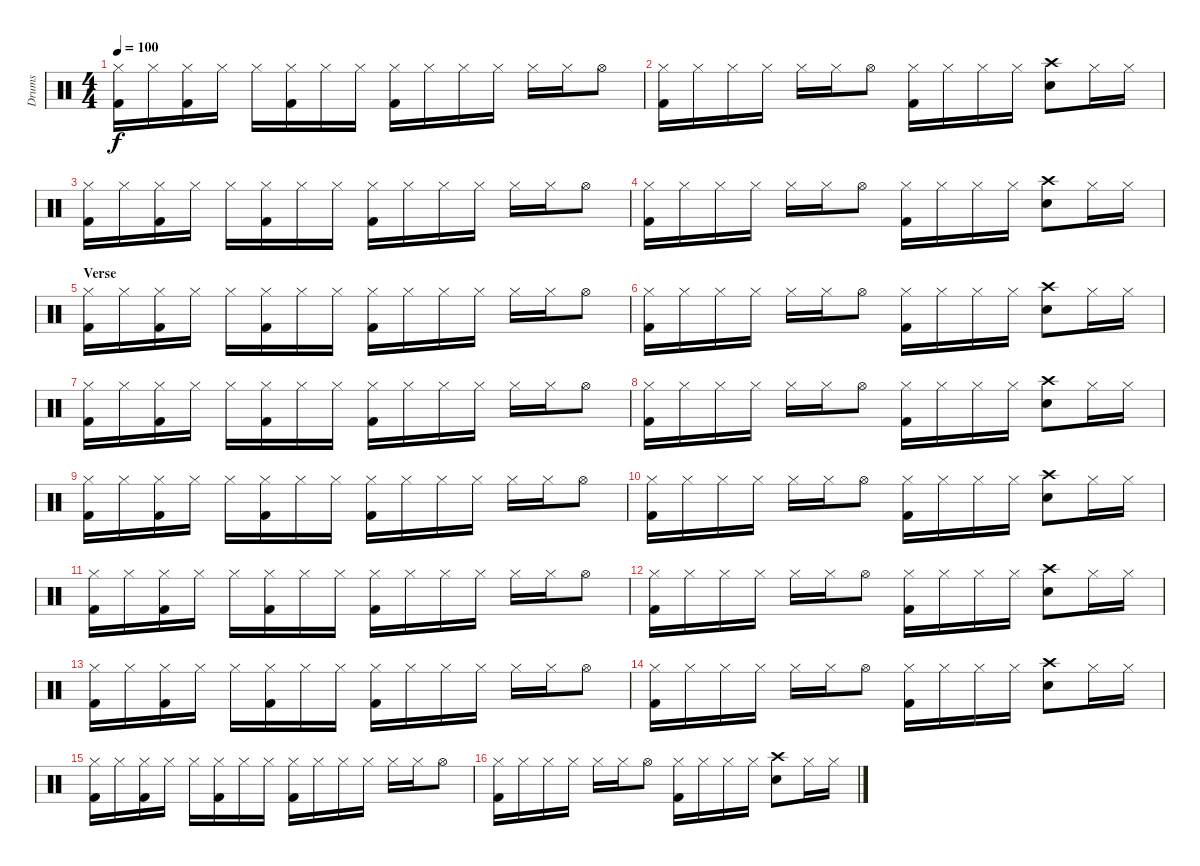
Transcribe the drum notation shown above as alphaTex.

\track ("Drums" "Drums") {instrument percussion}
\staff {score}
\articulation defaults
\ts (4 4)
\tempo 100
\clef neutral
\ks c
("Hi-Hat (closed)" "Kick (hit) 2").16{dy f} "Hi-Hat (closed)".16 ("Hi-Hat (closed)" "Kick (hit) 2").16 "Hi-Hat (closed)".16 "Hi-Hat (closed)".16 ("Hi-Hat (closed)" "Kick (hit) 2").16 "Hi-Hat (closed)".16 "Hi-Hat (closed)".16 ("Hi-Hat (closed)" "Kick (hit) 2").16 "Hi-Hat (closed)".16 "Hi-Hat (closed)".16 "Hi-Hat (closed)".16 "Hi-Hat (closed)".16 "Hi-Hat (closed)".16 "Hi-Hat (open)".8 |
("Hi-Hat (closed)" "Kick (hit) 2").16 "Hi-Hat (closed)".16 "Hi-Hat (closed)".16 "Hi-Hat (closed)".16 "Hi-Hat (closed)".16 "Hi-Hat (closed)".16 "Hi-Hat (open)".8 ("Hi-Hat (closed)" "Kick (hit) 2").16 "Hi-Hat (closed)".16 "Hi-Hat (closed)".16 "Hi-Hat (closed)".16 ("Crash high (hit)" "Electric Snare (hit)").8 "Hi-Hat (closed)".16 "Hi-Hat (closed)".16 |
("Hi-Hat (closed)" "Kick (hit) 2").16 "Hi-Hat (closed)".16 ("Hi-Hat (closed)" "Kick (hit) 2").16 "Hi-Hat (closed)".16 "Hi-Hat (closed)".16 ("Hi-Hat (closed)" "Kick (hit) 2").16 "Hi-Hat (closed)".16 "Hi-Hat (closed)".16 ("Hi-Hat (closed)" "Kick (hit) 2").16 "Hi-Hat (closed)".16 "Hi-Hat (closed)".16 "Hi-Hat (closed)".16 "Hi-Hat (closed)".16 "Hi-Hat (closed)".16 "Hi-Hat (open)".8 |
("Hi-Hat (closed)" "Kick (hit) 2").16 "Hi-Hat (closed)".16 "Hi-Hat (closed)".16 "Hi-Hat (closed)".16 "Hi-Hat (closed)".16 "Hi-Hat (closed)".16 "Hi-Hat (open)".8 ("Hi-Hat (closed)" "Kick (hit) 2").16 "Hi-Hat (closed)".16 "Hi-Hat (closed)".16 "Hi-Hat (closed)".16 ("Crash high (hit)" "Electric Snare (hit)").8 "Hi-Hat (closed)".16 "Hi-Hat (closed)".16 |
\section ("" "Verse")
("Hi-Hat (closed)" "Kick (hit) 2").16 "Hi-Hat (closed)".16 ("Hi-Hat (closed)" "Kick (hit) 2").16 "Hi-Hat (closed)".16 "Hi-Hat (closed)".16 ("Hi-Hat (closed)" "Kick (hit) 2").16 "Hi-Hat (closed)".16 "Hi-Hat (closed)".16 ("Hi-Hat (closed)" "Kick (hit) 2").16 "Hi-Hat (closed)".16 "Hi-Hat (closed)".16 "Hi-Hat (closed)".16 "Hi-Hat (closed)".16 "Hi-Hat (closed)".16 "Hi-Hat (open)".8 |
("Hi-Hat (closed)" "Kick (hit) 2").16 "Hi-Hat (closed)".16 "Hi-Hat (closed)".16 "Hi-Hat (closed)".16 "Hi-Hat (closed)".16 "Hi-Hat (closed)".16 "Hi-Hat (open)".8 ("Hi-Hat (closed)" "Kick (hit) 2").16 "Hi-Hat (closed)".16 "Hi-Hat (closed)".16 "Hi-Hat (closed)".16 ("Crash high (hit)" "Electric Snare (hit)").8 "Hi-Hat (closed)".16 "Hi-Hat (closed)".16 |
("Hi-Hat (closed)" "Kick (hit) 2").16 "Hi-Hat (closed)".16 ("Hi-Hat (closed)" "Kick (hit) 2").16 "Hi-Hat (closed)".16 "Hi-Hat (closed)".16 ("Hi-Hat (closed)" "Kick (hit) 2").16 "Hi-Hat (closed)".16 "Hi-Hat (closed)".16 ("Hi-Hat (closed)" "Kick (hit) 2").16 "Hi-Hat (closed)".16 "Hi-Hat (closed)".16 "Hi-Hat (closed)".16 "Hi-Hat (closed)".16 "Hi-Hat (closed)".16 "Hi-Hat (open)".8 |
("Hi-Hat (closed)" "Kick (hit) 2").16 "Hi-Hat (closed)".16 "Hi-Hat (closed)".16 "Hi-Hat (closed)".16 "Hi-Hat (closed)".16 "Hi-Hat (closed)".16 "Hi-Hat (open)".8 ("Hi-Hat (closed)" "Kick (hit) 2").16 "Hi-Hat (closed)".16 "Hi-Hat (closed)".16 "Hi-Hat (closed)".16 ("Crash high (hit)" "Electric Snare (hit)").8 "Hi-Hat (closed)".16 "Hi-Hat (closed)".16 |
("Hi-Hat (closed)" "Kick (hit) 2").16 "Hi-Hat (closed)".16 ("Hi-Hat (closed)" "Kick (hit) 2").16 "Hi-Hat (closed)".16 "Hi-Hat (closed)".16 ("Hi-Hat (closed)" "Kick (hit) 2").16 "Hi-Hat (closed)".16 "Hi-Hat (closed)".16 ("Hi-Hat (closed)" "Kick (hit) 2").16 "Hi-Hat (closed)".16 "Hi-Hat (closed)".16 "Hi-Hat (closed)".16 "Hi-Hat (closed)".16 "Hi-Hat (closed)".16 "Hi-Hat (open)".8 |
("Hi-Hat (closed)" "Kick (hit) 2").16 "Hi-Hat (closed)".16 "Hi-Hat (closed)".16 "Hi-Hat (closed)".16 "Hi-Hat (closed)".16 "Hi-Hat (closed)".16 "Hi-Hat (open)".8 ("Hi-Hat (closed)" "Kick (hit) 2").16 "Hi-Hat (closed)".16 "Hi-Hat (closed)".16 "Hi-Hat (closed)".16 ("Crash high (hit)" "Electric Snare (hit)").8 "Hi-Hat (closed)".16 "Hi-Hat (closed)".16 |
("Hi-Hat (closed)" "Kick (hit) 2").16 "Hi-Hat (closed)".16 ("Hi-Hat (closed)" "Kick (hit) 2").16 "Hi-Hat (closed)".16 "Hi-Hat (closed)".16 ("Hi-Hat (closed)" "Kick (hit) 2").16 "Hi-Hat (closed)".16 "Hi-Hat (closed)".16 ("Hi-Hat (closed)" "Kick (hit) 2").16 "Hi-Hat (closed)".16 "Hi-Hat (closed)".16 "Hi-Hat (closed)".16 "Hi-Hat (closed)".16 "Hi-Hat (closed)".16 "Hi-Hat (open)".8 |
("Hi-Hat (closed)" "Kick (hit) 2").16 "Hi-Hat (closed)".16 "Hi-Hat (closed)".16 "Hi-Hat (closed)".16 "Hi-Hat (closed)".16 "Hi-Hat (closed)".16 "Hi-Hat (open)".8 ("Hi-Hat (closed)" "Kick (hit) 2").16 "Hi-Hat (closed)".16 "Hi-Hat (closed)".16 "Hi-Hat (closed)".16 ("Crash high (hit)" "Electric Snare (hit)").8 "Hi-Hat (closed)".16 "Hi-Hat (closed)".16 |
("Hi-Hat (closed)" "Kick (hit) 2").16 "Hi-Hat (closed)".16 ("Hi-Hat (closed)" "Kick (hit) 2").16 "Hi-Hat (closed)".16 "Hi-Hat (closed)".16 ("Hi-Hat (closed)" "Kick (hit) 2").16 "Hi-Hat (closed)".16 "Hi-Hat (closed)".16 ("Hi-Hat (closed)" "Kick (hit) 2").16 "Hi-Hat (closed)".16 "Hi-Hat (closed)".16 "Hi-Hat (closed)".16 "Hi-Hat (closed)".16 "Hi-Hat (closed)".16 "Hi-Hat (open)".8 |
("Hi-Hat (closed)" "Kick (hit) 2").16 "Hi-Hat (closed)".16 "Hi-Hat (closed)".16 "Hi-Hat (closed)".16 "Hi-Hat (closed)".16 "Hi-Hat (closed)".16 "Hi-Hat (open)".8 ("Hi-Hat (closed)" "Kick (hit) 2").16 "Hi-Hat (closed)".16 "Hi-Hat (closed)".16 "Hi-Hat (closed)".16 ("Crash high (hit)" "Electric Snare (hit)").8 "Hi-Hat (closed)".16 "Hi-Hat (closed)".16 |
("Hi-Hat (closed)" "Kick (hit) 2").16 "Hi-Hat (closed)".16 ("Hi-Hat (closed)" "Kick (hit) 2").16 "Hi-Hat (closed)".16 "Hi-Hat (closed)".16 ("Hi-Hat (closed)" "Kick (hit) 2").16 "Hi-Hat (closed)".16 "Hi-Hat (closed)".16 ("Hi-Hat (closed)" "Kick (hit) 2").16 "Hi-Hat (closed)".16 "Hi-Hat (closed)".16 "Hi-Hat (closed)".16 "Hi-Hat (closed)".16 "Hi-Hat (closed)".16 "Hi-Hat (open)".8 |
("Hi-Hat (closed)" "Kick (hit) 2").16 "Hi-Hat (closed)".16 "Hi-Hat (closed)".16 "Hi-Hat (closed)".16 "Hi-Hat (closed)".16 "Hi-Hat (closed)".16 "Hi-Hat (open)".8 ("Hi-Hat (closed)" "Kick (hit) 2").16 "Hi-Hat (closed)".16 "Hi-Hat (closed)".16 "Hi-Hat (closed)".16 ("Crash high (hit)" "Electric Snare (hit)").8 "Hi-Hat (closed)".16 "Hi-Hat (closed)".16
